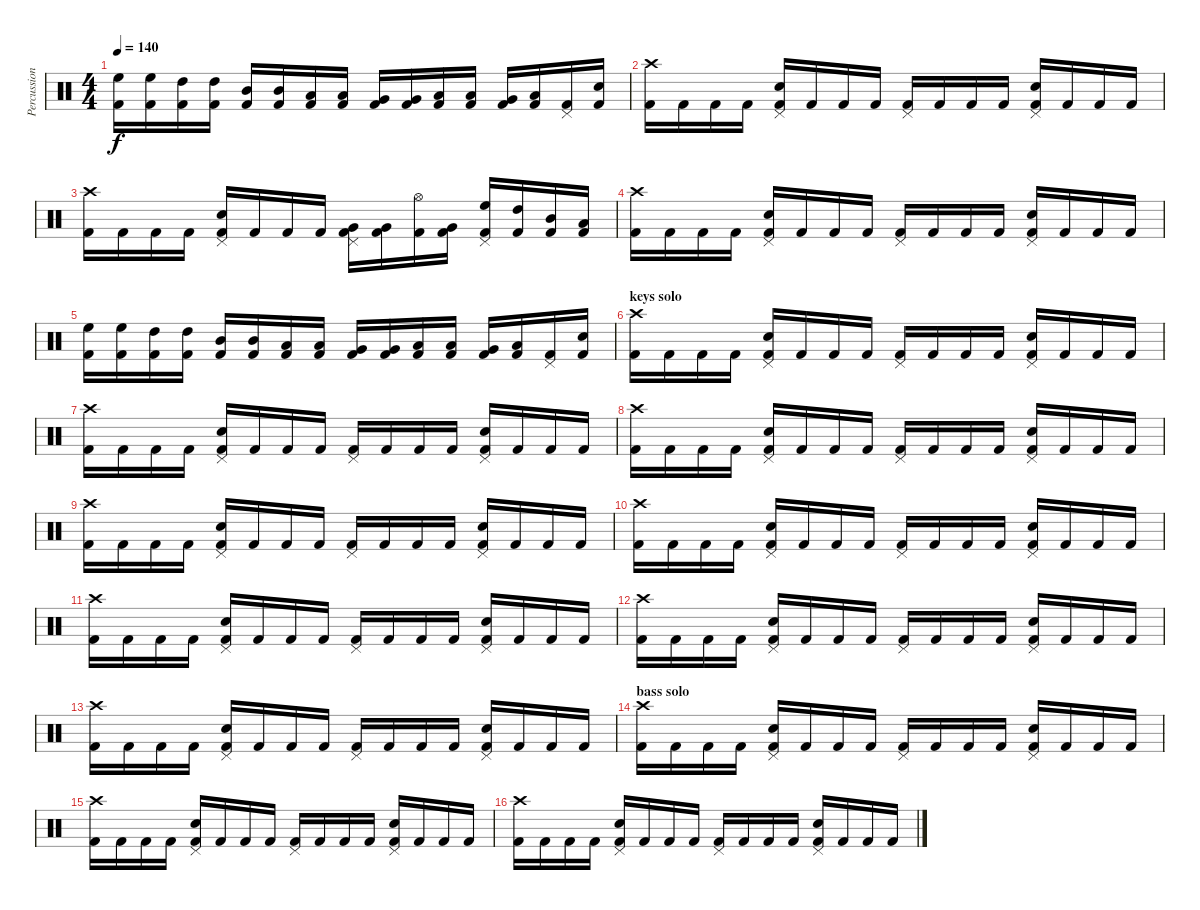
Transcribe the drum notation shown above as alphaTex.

\track ("Percussion" "Percussion") {instrument percussion}
\staff {score}
\articulation defaults
\ts (4 4)
\tempo 140
\clef neutral
\ks c
("High Floor Tom (hit)" "Kick (hit) 2").16{dy f} ("High Floor Tom (hit)" "Kick (hit) 2").16 ("High Tom (hit)" "Kick (hit) 2").16 ("High Tom (hit)" "Kick (hit) 2").16 ("Mid Tom (hit)" "Kick (hit) 2").16 ("Mid Tom (hit)" "Kick (hit) 2").16 ("Low Tom (hit)" "Kick (hit) 2").16 ("Low Tom (hit)" "Kick (hit) 2").16 ("Very Low Tom (hit)" "Kick (hit) 2").16 ("Very Low Tom (hit)" "Kick (hit) 2").16 ("Low Floor Tom (hit)" "Kick (hit) 2").16 ("Low Floor Tom (hit)" "Kick (hit) 2").16 ("Very Low Tom (hit)" "Kick (hit) 2").16 ("Low Floor Tom (hit)" "Kick (hit) 2").16 ("Pedal Hi-Hat (hit)" "Kick (hit) 2").16 ("Electric Snare (hit)" "Kick (hit) 2").16 |
("Crash high (hit)" "Kick (hit) 2").16 "Kick (hit) 2".16 "Kick (hit) 2".16 "Kick (hit) 2".16 ("Pedal Hi-Hat (hit)" "Electric Snare (hit)" "Kick (hit) 2").16 "Kick (hit) 2".16 "Kick (hit) 2".16 "Kick (hit) 2".16 ("Pedal Hi-Hat (hit)" "Kick (hit) 2").16 "Kick (hit) 2".16 "Kick (hit) 2".16 "Kick (hit) 2".16 ("Pedal Hi-Hat (hit)" "Electric Snare (hit)" "Kick (hit) 2").16 "Kick (hit) 2".16 "Kick (hit) 2".16 "Kick (hit) 2".16 |
("Crash high (hit)" "Kick (hit) 2").16 "Kick (hit) 2".16 "Kick (hit) 2".16 "Kick (hit) 2".16 ("Pedal Hi-Hat (hit)" "Electric Snare (hit)" "Kick (hit) 2").16 "Kick (hit) 2".16 "Kick (hit) 2".16 "Kick (hit) 2".16 ("Pedal Hi-Hat (hit)" "Very Low Tom (hit)" "Kick (hit) 2").16 ("Very Low Tom (hit)" "Kick (hit) 2").16 ("Hi-Hat (open)" "Kick (hit) 2").16 ("Very Low Tom (hit)" "Kick (hit) 2").16 ("Pedal Hi-Hat (hit)" "High Floor Tom (hit)" "Kick (hit) 2").16 ("High Tom (hit)" "Kick (hit) 2").16 ("Mid Tom (hit)" "Kick (hit) 2").16 ("Low Tom (hit)" "Kick (hit) 2").16 |
("Crash high (hit)" "Kick (hit) 2").16 "Kick (hit) 2".16 "Kick (hit) 2".16 "Kick (hit) 2".16 ("Pedal Hi-Hat (hit)" "Electric Snare (hit)" "Kick (hit) 2").16 "Kick (hit) 2".16 "Kick (hit) 2".16 "Kick (hit) 2".16 ("Pedal Hi-Hat (hit)" "Kick (hit) 2").16 "Kick (hit) 2".16 "Kick (hit) 2".16 "Kick (hit) 2".16 ("Pedal Hi-Hat (hit)" "Electric Snare (hit)" "Kick (hit) 2").16 "Kick (hit) 2".16 "Kick (hit) 2".16 "Kick (hit) 2".16 |
("High Floor Tom (hit)" "Kick (hit) 2").16 ("High Floor Tom (hit)" "Kick (hit) 2").16 ("High Tom (hit)" "Kick (hit) 2").16 ("High Tom (hit)" "Kick (hit) 2").16 ("Mid Tom (hit)" "Kick (hit) 2").16 ("Mid Tom (hit)" "Kick (hit) 2").16 ("Low Tom (hit)" "Kick (hit) 2").16 ("Low Tom (hit)" "Kick (hit) 2").16 ("Very Low Tom (hit)" "Kick (hit) 2").16 ("Very Low Tom (hit)" "Kick (hit) 2").16 ("Low Floor Tom (hit)" "Kick (hit) 2").16 ("Low Floor Tom (hit)" "Kick (hit) 2").16 ("Very Low Tom (hit)" "Kick (hit) 2").16 ("Low Floor Tom (hit)" "Kick (hit) 2").16 ("Pedal Hi-Hat (hit)" "Kick (hit) 2").16 ("Electric Snare (hit)" "Kick (hit) 2").16 |
\section ("" "keys solo")
("Crash high (hit)" "Kick (hit) 2").16 "Kick (hit) 2".16 "Kick (hit) 2".16 "Kick (hit) 2".16 ("Pedal Hi-Hat (hit)" "Electric Snare (hit)" "Kick (hit) 2").16 "Kick (hit) 2".16 "Kick (hit) 2".16 "Kick (hit) 2".16 ("Pedal Hi-Hat (hit)" "Kick (hit) 2").16 "Kick (hit) 2".16 "Kick (hit) 2".16 "Kick (hit) 2".16 ("Pedal Hi-Hat (hit)" "Electric Snare (hit)" "Kick (hit) 2").16 "Kick (hit) 2".16 "Kick (hit) 2".16 "Kick (hit) 2".16 |
("Crash high (hit)" "Kick (hit) 2").16 "Kick (hit) 2".16 "Kick (hit) 2".16 "Kick (hit) 2".16 ("Pedal Hi-Hat (hit)" "Electric Snare (hit)" "Kick (hit) 2").16 "Kick (hit) 2".16 "Kick (hit) 2".16 "Kick (hit) 2".16 ("Pedal Hi-Hat (hit)" "Kick (hit) 2").16 "Kick (hit) 2".16 "Kick (hit) 2".16 "Kick (hit) 2".16 ("Pedal Hi-Hat (hit)" "Electric Snare (hit)" "Kick (hit) 2").16 "Kick (hit) 2".16 "Kick (hit) 2".16 "Kick (hit) 2".16 |
("Crash high (hit)" "Kick (hit) 2").16 "Kick (hit) 2".16 "Kick (hit) 2".16 "Kick (hit) 2".16 ("Pedal Hi-Hat (hit)" "Electric Snare (hit)" "Kick (hit) 2").16 "Kick (hit) 2".16 "Kick (hit) 2".16 "Kick (hit) 2".16 ("Pedal Hi-Hat (hit)" "Kick (hit) 2").16 "Kick (hit) 2".16 "Kick (hit) 2".16 "Kick (hit) 2".16 ("Pedal Hi-Hat (hit)" "Electric Snare (hit)" "Kick (hit) 2").16 "Kick (hit) 2".16 "Kick (hit) 2".16 "Kick (hit) 2".16 |
("Crash high (hit)" "Kick (hit) 2").16 "Kick (hit) 2".16 "Kick (hit) 2".16 "Kick (hit) 2".16 ("Pedal Hi-Hat (hit)" "Electric Snare (hit)" "Kick (hit) 2").16 "Kick (hit) 2".16 "Kick (hit) 2".16 "Kick (hit) 2".16 ("Pedal Hi-Hat (hit)" "Kick (hit) 2").16 "Kick (hit) 2".16 "Kick (hit) 2".16 "Kick (hit) 2".16 ("Pedal Hi-Hat (hit)" "Electric Snare (hit)" "Kick (hit) 2").16 "Kick (hit) 2".16 "Kick (hit) 2".16 "Kick (hit) 2".16 |
("Crash high (hit)" "Kick (hit) 2").16 "Kick (hit) 2".16 "Kick (hit) 2".16 "Kick (hit) 2".16 ("Pedal Hi-Hat (hit)" "Electric Snare (hit)" "Kick (hit) 2").16 "Kick (hit) 2".16 "Kick (hit) 2".16 "Kick (hit) 2".16 ("Pedal Hi-Hat (hit)" "Kick (hit) 2").16 "Kick (hit) 2".16 "Kick (hit) 2".16 "Kick (hit) 2".16 ("Pedal Hi-Hat (hit)" "Electric Snare (hit)" "Kick (hit) 2").16 "Kick (hit) 2".16 "Kick (hit) 2".16 "Kick (hit) 2".16 |
("Crash high (hit)" "Kick (hit) 2").16 "Kick (hit) 2".16 "Kick (hit) 2".16 "Kick (hit) 2".16 ("Pedal Hi-Hat (hit)" "Electric Snare (hit)" "Kick (hit) 2").16 "Kick (hit) 2".16 "Kick (hit) 2".16 "Kick (hit) 2".16 ("Pedal Hi-Hat (hit)" "Kick (hit) 2").16 "Kick (hit) 2".16 "Kick (hit) 2".16 "Kick (hit) 2".16 ("Pedal Hi-Hat (hit)" "Electric Snare (hit)" "Kick (hit) 2").16 "Kick (hit) 2".16 "Kick (hit) 2".16 "Kick (hit) 2".16 |
("Crash high (hit)" "Kick (hit) 2").16 "Kick (hit) 2".16 "Kick (hit) 2".16 "Kick (hit) 2".16 ("Pedal Hi-Hat (hit)" "Electric Snare (hit)" "Kick (hit) 2").16 "Kick (hit) 2".16 "Kick (hit) 2".16 "Kick (hit) 2".16 ("Pedal Hi-Hat (hit)" "Kick (hit) 2").16 "Kick (hit) 2".16 "Kick (hit) 2".16 "Kick (hit) 2".16 ("Pedal Hi-Hat (hit)" "Electric Snare (hit)" "Kick (hit) 2").16 "Kick (hit) 2".16 "Kick (hit) 2".16 "Kick (hit) 2".16 |
("Crash high (hit)" "Kick (hit) 2").16 "Kick (hit) 2".16 "Kick (hit) 2".16 "Kick (hit) 2".16 ("Pedal Hi-Hat (hit)" "Electric Snare (hit)" "Kick (hit) 2").16 "Kick (hit) 2".16 "Kick (hit) 2".16 "Kick (hit) 2".16 ("Pedal Hi-Hat (hit)" "Kick (hit) 2").16 "Kick (hit) 2".16 "Kick (hit) 2".16 "Kick (hit) 2".16 ("Pedal Hi-Hat (hit)" "Electric Snare (hit)" "Kick (hit) 2").16 "Kick (hit) 2".16 "Kick (hit) 2".16 "Kick (hit) 2".16 |
\section ("" "bass solo")
("Crash high (hit)" "Kick (hit) 2").16 "Kick (hit) 2".16 "Kick (hit) 2".16 "Kick (hit) 2".16 ("Pedal Hi-Hat (hit)" "Electric Snare (hit)" "Kick (hit) 2").16 "Kick (hit) 2".16 "Kick (hit) 2".16 "Kick (hit) 2".16 ("Pedal Hi-Hat (hit)" "Kick (hit) 2").16 "Kick (hit) 2".16 "Kick (hit) 2".16 "Kick (hit) 2".16 ("Pedal Hi-Hat (hit)" "Electric Snare (hit)" "Kick (hit) 2").16 "Kick (hit) 2".16 "Kick (hit) 2".16 "Kick (hit) 2".16 |
("Crash high (hit)" "Kick (hit) 2").16 "Kick (hit) 2".16 "Kick (hit) 2".16 "Kick (hit) 2".16 ("Pedal Hi-Hat (hit)" "Electric Snare (hit)" "Kick (hit) 2").16 "Kick (hit) 2".16 "Kick (hit) 2".16 "Kick (hit) 2".16 ("Pedal Hi-Hat (hit)" "Kick (hit) 2").16 "Kick (hit) 2".16 "Kick (hit) 2".16 "Kick (hit) 2".16 ("Pedal Hi-Hat (hit)" "Electric Snare (hit)" "Kick (hit) 2").16 "Kick (hit) 2".16 "Kick (hit) 2".16 "Kick (hit) 2".16 |
("Crash high (hit)" "Kick (hit) 2").16 "Kick (hit) 2".16 "Kick (hit) 2".16 "Kick (hit) 2".16 ("Pedal Hi-Hat (hit)" "Electric Snare (hit)" "Kick (hit) 2").16 "Kick (hit) 2".16 "Kick (hit) 2".16 "Kick (hit) 2".16 ("Pedal Hi-Hat (hit)" "Kick (hit) 2").16 "Kick (hit) 2".16 "Kick (hit) 2".16 "Kick (hit) 2".16 ("Pedal Hi-Hat (hit)" "Electric Snare (hit)" "Kick (hit) 2").16 "Kick (hit) 2".16 "Kick (hit) 2".16 "Kick (hit) 2".16
